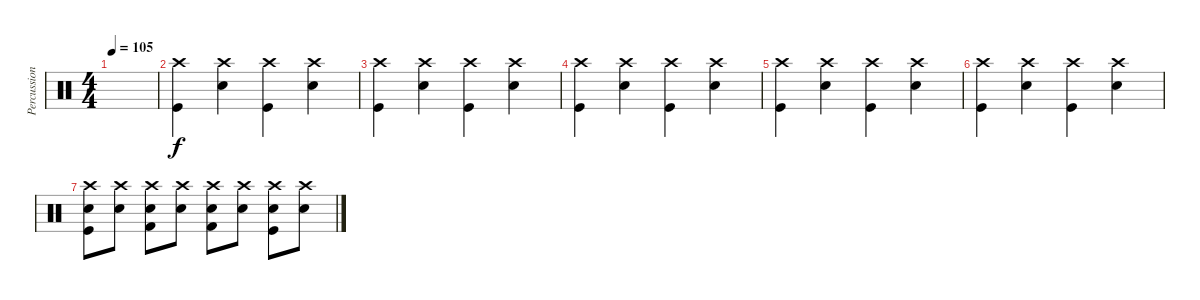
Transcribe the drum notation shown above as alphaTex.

\track ("Percussion" "Percussion") {instrument percussion}
\staff {score}
\articulation defaults
\ts (4 4)
\tempo 105
\clef neutral
\ks c
|
("Crash high (hit)" "Kick (hit)").4 ("Crash high (hit)" "Snare (hit) 2").4 ("Crash high (hit)" "Kick (hit)").4 ("Crash high (hit)" "Snare (hit) 2").4 |
("Crash high (hit)" "Kick (hit)").4 ("Crash high (hit)" "Snare (hit) 2").4 ("Crash high (hit)" "Kick (hit)").4 ("Crash high (hit)" "Snare (hit) 2").4 |
("Crash high (hit)" "Kick (hit)").4 ("Crash high (hit)" "Snare (hit) 2").4 ("Crash high (hit)" "Kick (hit)").4 ("Crash high (hit)" "Snare (hit) 2").4 |
("Crash high (hit)" "Kick (hit)").4 ("Crash high (hit)" "Snare (hit) 2").4 ("Crash high (hit)" "Kick (hit)").4 ("Crash high (hit)" "Snare (hit) 2").4 |
("Crash high (hit)" "Kick (hit)").4 ("Crash high (hit)" "Snare (hit) 2").4 ("Crash high (hit)" "Kick (hit)").4 ("Crash high (hit)" "Snare (hit) 2").4 |
("Crash high (hit)" "Snare (hit) 2" "Kick (hit)").8 ("Crash high (hit)" "Snare (hit) 2").8 ("Crash high (hit)" "Snare (hit) 2" "Kick (hit) 2").8 ("Crash high (hit)" "Snare (hit) 2").8 ("Crash high (hit)" "Snare (hit) 2" "Kick (hit) 2").8 ("Crash high (hit)" "Snare (hit) 2").8 ("Crash high (hit)" "Snare (hit) 2" "Kick (hit)").8 ("Crash high (hit)" "Snare (hit) 2").8
